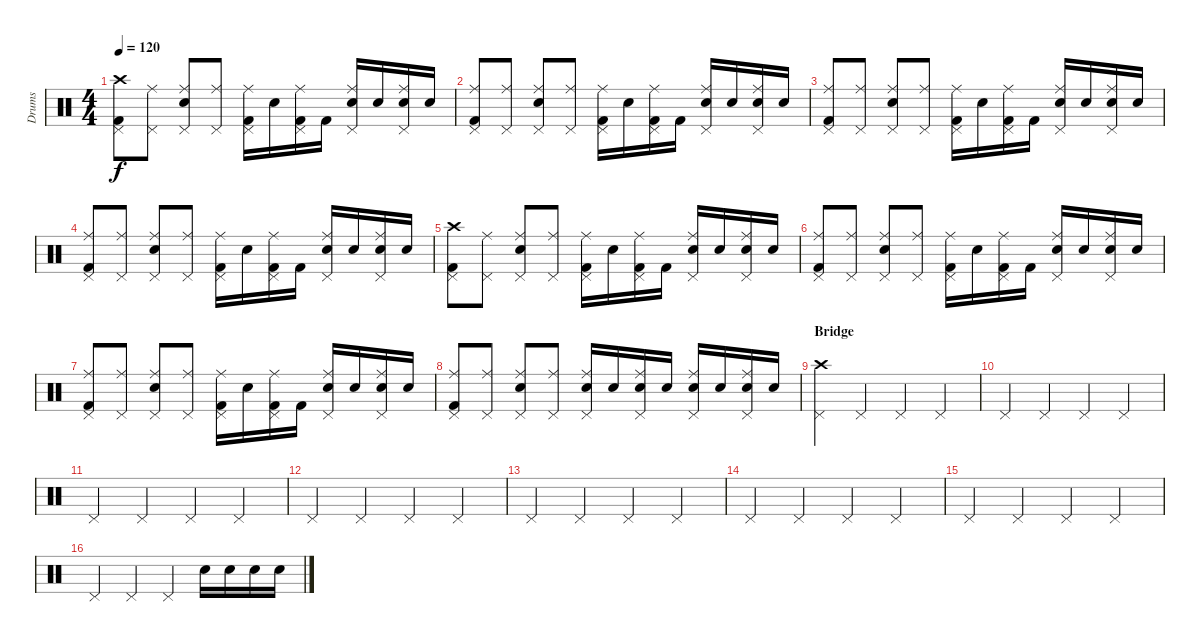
\track ("Drums" "Drums") {instrument percussion}
\staff {score}
\articulation defaults
\ts (4 4)
\tempo 120
\clef neutral
\ks c
("Crash high (hit)" "Kick (hit) 2" "Pedal Hi-Hat (hit)").8{dy f} ("Ride (middle)" "Pedal Hi-Hat (hit)").8 ("Ride (middle)" "Electric Snare (hit)" "Pedal Hi-Hat (hit)").8 ("Ride (middle)" "Pedal Hi-Hat (hit)").8 ("Ride (middle)" "Kick (hit) 2" "Pedal Hi-Hat (hit)").16 "Electric Snare (hit)".16 ("Ride (middle)" "Kick (hit) 2" "Pedal Hi-Hat (hit)").16 "Kick (hit) 2".16 ("Ride (middle)" "Electric Snare (hit)" "Pedal Hi-Hat (hit)").16 "Electric Snare (hit)".16 ("Ride (middle)" "Electric Snare (hit)" "Pedal Hi-Hat (hit)").16 "Electric Snare (hit)".16 |
("Ride (middle)" "Kick (hit) 2" "Pedal Hi-Hat (hit)").8 ("Ride (middle)" "Pedal Hi-Hat (hit)").8 ("Ride (middle)" "Electric Snare (hit)" "Pedal Hi-Hat (hit)").8 ("Ride (middle)" "Pedal Hi-Hat (hit)").8 ("Ride (middle)" "Kick (hit) 2" "Pedal Hi-Hat (hit)").16 "Electric Snare (hit)".16 ("Ride (middle)" "Kick (hit) 2" "Pedal Hi-Hat (hit)").16 "Kick (hit) 2".16 ("Ride (middle)" "Electric Snare (hit)" "Pedal Hi-Hat (hit)").16 "Electric Snare (hit)".16 ("Ride (middle)" "Electric Snare (hit)" "Pedal Hi-Hat (hit)").16 "Electric Snare (hit)".16 |
("Ride (middle)" "Kick (hit) 2" "Pedal Hi-Hat (hit)").8 ("Ride (middle)" "Pedal Hi-Hat (hit)").8 ("Ride (middle)" "Electric Snare (hit)" "Pedal Hi-Hat (hit)").8 ("Ride (middle)" "Pedal Hi-Hat (hit)").8 ("Ride (middle)" "Kick (hit) 2" "Pedal Hi-Hat (hit)").16 "Electric Snare (hit)".16 ("Ride (middle)" "Kick (hit) 2" "Pedal Hi-Hat (hit)").16 "Kick (hit) 2".16 ("Ride (middle)" "Electric Snare (hit)" "Pedal Hi-Hat (hit)").16 "Electric Snare (hit)".16 ("Ride (middle)" "Electric Snare (hit)" "Pedal Hi-Hat (hit)").16 "Electric Snare (hit)".16 |
("Ride (middle)" "Kick (hit) 2" "Pedal Hi-Hat (hit)").8 ("Ride (middle)" "Pedal Hi-Hat (hit)").8 ("Ride (middle)" "Electric Snare (hit)" "Pedal Hi-Hat (hit)").8 ("Ride (middle)" "Pedal Hi-Hat (hit)").8 ("Ride (middle)" "Kick (hit) 2" "Pedal Hi-Hat (hit)").16 "Electric Snare (hit)".16 ("Ride (middle)" "Kick (hit) 2" "Pedal Hi-Hat (hit)").16 "Kick (hit) 2".16 ("Ride (middle)" "Electric Snare (hit)" "Pedal Hi-Hat (hit)").16 "Electric Snare (hit)".16 ("Ride (middle)" "Electric Snare (hit)" "Pedal Hi-Hat (hit)").16 "Electric Snare (hit)".16 |
("Crash high (hit)" "Kick (hit) 2" "Pedal Hi-Hat (hit)").8 ("Ride (middle)" "Pedal Hi-Hat (hit)").8 ("Ride (middle)" "Electric Snare (hit)" "Pedal Hi-Hat (hit)").8 ("Ride (middle)" "Pedal Hi-Hat (hit)").8 ("Ride (middle)" "Kick (hit) 2" "Pedal Hi-Hat (hit)").16 "Electric Snare (hit)".16 ("Ride (middle)" "Kick (hit) 2" "Pedal Hi-Hat (hit)").16 "Kick (hit) 2".16 ("Ride (middle)" "Electric Snare (hit)" "Pedal Hi-Hat (hit)").16 "Electric Snare (hit)".16 ("Ride (middle)" "Electric Snare (hit)" "Pedal Hi-Hat (hit)").16 "Electric Snare (hit)".16 |
("Ride (middle)" "Kick (hit) 2" "Pedal Hi-Hat (hit)").8 ("Ride (middle)" "Pedal Hi-Hat (hit)").8 ("Ride (middle)" "Electric Snare (hit)" "Pedal Hi-Hat (hit)").8 ("Ride (middle)" "Pedal Hi-Hat (hit)").8 ("Ride (middle)" "Kick (hit) 2" "Pedal Hi-Hat (hit)").16 "Electric Snare (hit)".16 ("Ride (middle)" "Kick (hit) 2" "Pedal Hi-Hat (hit)").16 "Kick (hit) 2".16 ("Ride (middle)" "Electric Snare (hit)" "Pedal Hi-Hat (hit)").16 "Electric Snare (hit)".16 ("Ride (middle)" "Electric Snare (hit)" "Pedal Hi-Hat (hit)").16 "Electric Snare (hit)".16 |
("Ride (middle)" "Kick (hit) 2" "Pedal Hi-Hat (hit)").8 ("Ride (middle)" "Pedal Hi-Hat (hit)").8 ("Ride (middle)" "Electric Snare (hit)" "Pedal Hi-Hat (hit)").8 ("Ride (middle)" "Pedal Hi-Hat (hit)").8 ("Ride (middle)" "Kick (hit) 2" "Pedal Hi-Hat (hit)").16 "Electric Snare (hit)".16 ("Ride (middle)" "Kick (hit) 2" "Pedal Hi-Hat (hit)").16 "Kick (hit) 2".16 ("Ride (middle)" "Electric Snare (hit)" "Pedal Hi-Hat (hit)").16 "Electric Snare (hit)".16 ("Ride (middle)" "Electric Snare (hit)" "Pedal Hi-Hat (hit)").16 "Electric Snare (hit)".16 |
("Ride (middle)" "Kick (hit) 2" "Pedal Hi-Hat (hit)").8 ("Ride (middle)" "Pedal Hi-Hat (hit)").8 ("Ride (middle)" "Electric Snare (hit)" "Pedal Hi-Hat (hit)").8 ("Ride (middle)" "Pedal Hi-Hat (hit)").8 ("Ride (middle)" "Electric Snare (hit)" "Pedal Hi-Hat (hit)").16 "Electric Snare (hit)".16 ("Ride (middle)" "Electric Snare (hit)" "Pedal Hi-Hat (hit)").16 "Electric Snare (hit)".16 ("Ride (middle)" "Electric Snare (hit)" "Pedal Hi-Hat (hit)").16 "Electric Snare (hit)".16 ("Ride (middle)" "Electric Snare (hit)" "Pedal Hi-Hat (hit)").16 "Electric Snare (hit)".16 |
\section ("" "Bridge")
("Crash high (hit)" "Pedal Hi-Hat (hit)").4{volume 8} "Pedal Hi-Hat (hit)".4 "Pedal Hi-Hat (hit)".4 "Pedal Hi-Hat (hit)".4 |
"Pedal Hi-Hat (hit)".4 "Pedal Hi-Hat (hit)".4 "Pedal Hi-Hat (hit)".4 "Pedal Hi-Hat (hit)".4 |
"Pedal Hi-Hat (hit)".4 "Pedal Hi-Hat (hit)".4 "Pedal Hi-Hat (hit)".4 "Pedal Hi-Hat (hit)".4 |
"Pedal Hi-Hat (hit)".4 "Pedal Hi-Hat (hit)".4 "Pedal Hi-Hat (hit)".4 "Pedal Hi-Hat (hit)".4 |
"Pedal Hi-Hat (hit)".4 "Pedal Hi-Hat (hit)".4 "Pedal Hi-Hat (hit)".4 "Pedal Hi-Hat (hit)".4 |
"Pedal Hi-Hat (hit)".4 "Pedal Hi-Hat (hit)".4 "Pedal Hi-Hat (hit)".4 "Pedal Hi-Hat (hit)".4 |
"Pedal Hi-Hat (hit)".4 "Pedal Hi-Hat (hit)".4 "Pedal Hi-Hat (hit)".4 "Pedal Hi-Hat (hit)".4 |
"Pedal Hi-Hat (hit)".4 "Pedal Hi-Hat (hit)".4 "Pedal Hi-Hat (hit)".4 "Electric Snare (hit)".16{volume 16} "Electric Snare (hit)".16 "Electric Snare (hit)".16 "Electric Snare (hit)".16
